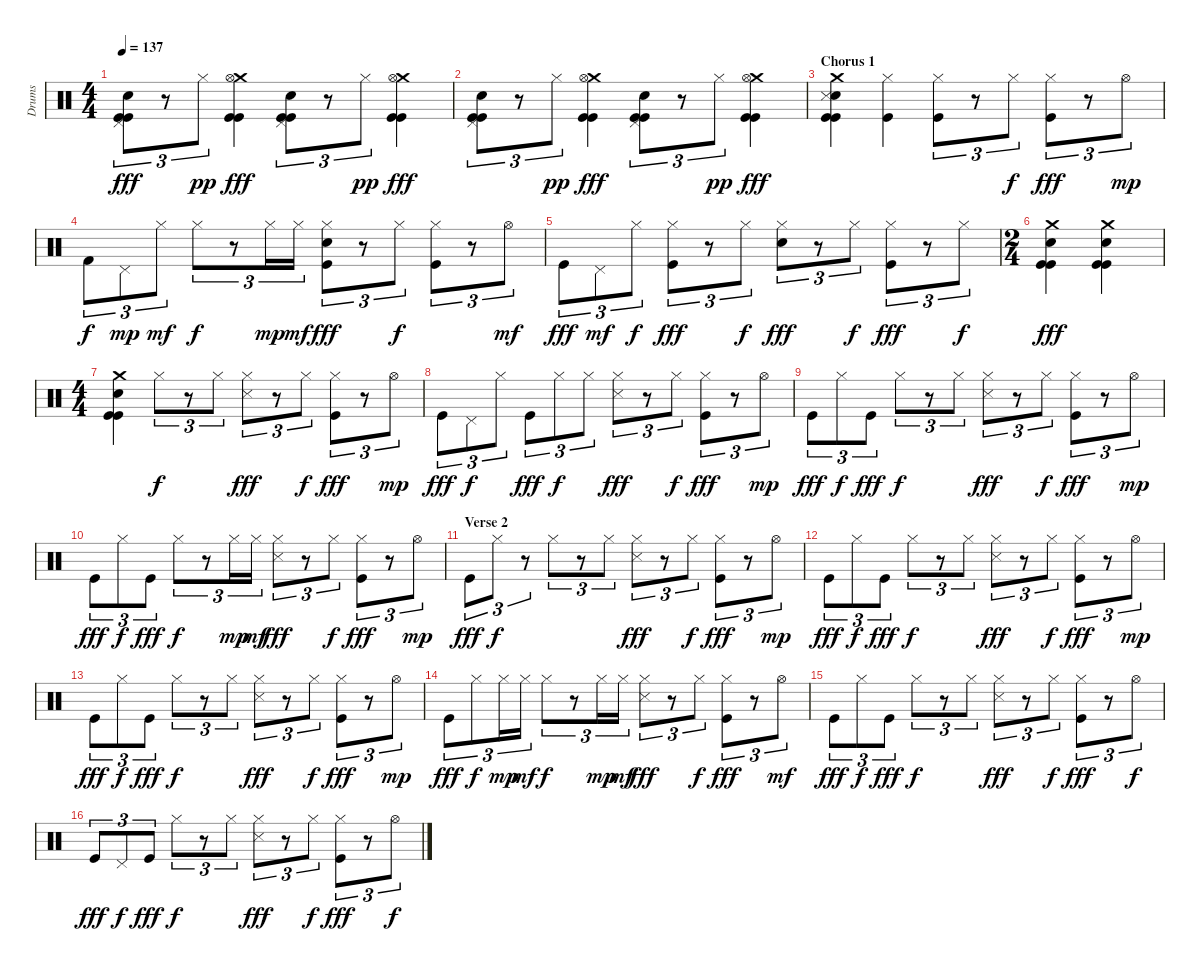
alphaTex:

\track ("Drums" "Drums") {instrument percussion}
\staff {score}
\articulation defaults
\ts (4 4)
\tempo 137
\clef neutral
\ks c
("Pedal Hi-Hat (hit)" "Electric Snare (hit)" "Kick (hit)" "Kick (hit)").8{tu (3 2) dy fff volume 16} r.8{tu (3 2)} "Hi-Hat (closed)".8{tu (3 2) dy pp} ("Crash medium (hit)" "Hi-Hat (open)" "Kick (hit)" "Kick (hit)").4{dy fff} ("Pedal Hi-Hat (hit)" "Electric Snare (hit)" "Kick (hit)" "Kick (hit)").8{tu (3 2)} r.8{tu (3 2)} "Hi-Hat (closed)".8{tu (3 2) dy pp} ("Crash medium (hit)" "Hi-Hat (open)" "Kick (hit)" "Kick (hit)").4{dy fff} |
("Pedal Hi-Hat (hit)" "Electric Snare (hit)" "Kick (hit)" "Kick (hit)").8{tu (3 2)} r.8{tu (3 2)} "Hi-Hat (closed)".8{tu (3 2) dy pp} ("Crash medium (hit)" "Hi-Hat (open)" "Kick (hit)" "Kick (hit)").4{dy fff} ("Pedal Hi-Hat (hit)" "Electric Snare (hit)" "Kick (hit)" "Kick (hit)").8{tu (3 2)} r.8{tu (3 2)} "Hi-Hat (closed)".8{tu (3 2) dy pp} ("Crash medium (hit)" "Hi-Hat (open)" "Kick (hit)" "Kick (hit)").4{dy fff} |
\section ("" "Chorus 1")
("Crash medium (hit)" "Electric Snare (hit)" "Snare (side stick) 3" "Kick (hit)" "Kick (hit)").4 ("Hi-Hat (closed)" "Kick (hit)").4{volume 10} ("Hi-Hat (closed)" "Kick (hit)").8{tu (3 2)} r.8{tu (3 2)} "Hi-Hat (closed)".8{tu (3 2) dy f} ("Hi-Hat (closed)" "Kick (hit)").8{tu (3 2) dy fff} r.8{tu (3 2)} "Hi-Hat (open)".8{tu (3 2) dy mp} |
"Kick (hit) 2".8{tu (3 2) dy f} "Pedal Hi-Hat (hit)".8{tu (3 2) dy mp} "Hi-Hat (closed)".8{tu (3 2) dy mf} "Hi-Hat (closed)".8{tu (3 2) dy f} r.8{tu (3 2)} "Hi-Hat (closed)".16{tu (3 2) dy mp} "Hi-Hat (closed)".16{tu (3 2) dy mf} ("Hi-Hat (closed)" "Electric Snare (hit)" "Kick (hit)").8{tu (3 2) dy fff} r.8{tu (3 2)} "Hi-Hat (closed)".8{tu (3 2) dy f} ("Hi-Hat (closed)" "Kick (hit)").8{tu (3 2)} r.8{tu (3 2)} "Hi-Hat (open)".8{tu (3 2) dy mf} |
"Kick (hit)".8{tu (3 2) dy fff} "Pedal Hi-Hat (hit)".8{tu (3 2) dy mf} "Hi-Hat (closed)".8{tu (3 2) dy f} ("Hi-Hat (closed)" "Kick (hit)").8{tu (3 2) dy fff} r.8{tu (3 2)} "Hi-Hat (closed)".8{tu (3 2) dy f} ("Hi-Hat (closed)" "Electric Snare (hit)").8{tu (3 2) dy fff} r.8{tu (3 2)} "Hi-Hat (closed)".8{tu (3 2) dy f} ("Hi-Hat (closed)" "Kick (hit)").8{tu (3 2) dy fff} r.8{tu (3 2)} "Hi-Hat (closed)".8{tu (3 2) dy f} |
\ts (2 4)
("Crash medium (hit)" "Electric Snare (hit)" "Kick (hit)" "Kick (hit)").4{dy fff volume 16} ("Crash medium (hit)" "Electric Snare (hit)" "Kick (hit)" "Kick (hit)").4 |
\ts (4 4)
("Crash medium (hit)" "Electric Snare (hit)" "Kick (hit)" "Kick (hit)").4{volume 10} "Hi-Hat (closed)".8{tu (3 2) dy f} r.8{tu (3 2)} "Hi-Hat (closed)".8{tu (3 2)} ("Hi-Hat (closed)" "Snare (side stick) 3").8{tu (3 2) dy fff} r.8{tu (3 2)} "Hi-Hat (closed)".8{tu (3 2) dy f} ("Hi-Hat (closed)" "Kick (hit)").8{tu (3 2) dy fff} r.8{tu (3 2)} "Hi-Hat (open)".8{tu (3 2) dy mp} |
"Kick (hit)".8{tu (3 2) dy fff} "Pedal Hi-Hat (hit)".8{tu (3 2) dy f} "Hi-Hat (closed)".8{tu (3 2)} "Kick (hit)".8{tu (3 2) dy fff} "Hi-Hat (closed)".8{tu (3 2) dy f} "Hi-Hat (closed)".8{tu (3 2)} ("Hi-Hat (closed)" "Snare (side stick) 3").8{tu (3 2) dy fff} r.8{tu (3 2)} "Hi-Hat (closed)".8{tu (3 2) dy f} ("Hi-Hat (closed)" "Kick (hit)").8{tu (3 2) dy fff} r.8{tu (3 2)} "Hi-Hat (open)".8{tu (3 2) dy mp} |
"Kick (hit)".8{tu (3 2) dy fff} "Hi-Hat (closed)".8{tu (3 2) dy f} "Kick (hit)".8{tu (3 2) dy fff} "Hi-Hat (closed)".8{tu (3 2) dy f} r.8{tu (3 2)} "Hi-Hat (closed)".8{tu (3 2)} ("Hi-Hat (closed)" "Snare (side stick) 3").8{tu (3 2) dy fff} r.8{tu (3 2)} "Hi-Hat (closed)".8{tu (3 2) dy f} ("Hi-Hat (closed)" "Kick (hit)").8{tu (3 2) dy fff} r.8{tu (3 2)} "Hi-Hat (open)".8{tu (3 2) dy mp} |
"Kick (hit)".8{tu (3 2) dy fff} "Hi-Hat (closed)".8{tu (3 2) dy f} "Kick (hit)".8{tu (3 2) dy fff} "Hi-Hat (closed)".8{tu (3 2) dy f} r.8{tu (3 2)} "Hi-Hat (closed)".16{tu (3 2) dy mp} "Hi-Hat (closed)".16{tu (3 2) dy mf} ("Hi-Hat (closed)" "Snare (side stick) 3").8{tu (3 2) dy fff} r.8{tu (3 2)} "Hi-Hat (closed)".8{tu (3 2) dy f} ("Hi-Hat (closed)" "Kick (hit)").8{tu (3 2) dy fff} r.8{tu (3 2)} "Hi-Hat (open)".8{tu (3 2) dy mp} |
\section ("" "Verse 2")
"Kick (hit)".8{tu (3 2) dy fff} "Hi-Hat (closed)".8{tu (3 2) dy f} r.8{tu (3 2)} "Hi-Hat (closed)".8{tu (3 2)} r.8{tu (3 2)} "Hi-Hat (closed)".8{tu (3 2)} ("Hi-Hat (closed)" "Snare (side stick) 3").8{tu (3 2) dy fff} r.8{tu (3 2)} "Hi-Hat (closed)".8{tu (3 2) dy f} ("Hi-Hat (closed)" "Kick (hit)").8{tu (3 2) dy fff} r.8{tu (3 2)} "Hi-Hat (open)".8{tu (3 2) dy mp} |
"Kick (hit)".8{tu (3 2) dy fff} "Hi-Hat (closed)".8{tu (3 2) dy f} "Kick (hit)".8{tu (3 2) dy fff} "Hi-Hat (closed)".8{tu (3 2) dy f} r.8{tu (3 2)} "Hi-Hat (closed)".8{tu (3 2)} ("Hi-Hat (closed)" "Snare (side stick) 3").8{tu (3 2) dy fff} r.8{tu (3 2)} "Hi-Hat (closed)".8{tu (3 2) dy f} ("Hi-Hat (closed)" "Kick (hit)").8{tu (3 2) dy fff} r.8{tu (3 2)} "Hi-Hat (open)".8{tu (3 2) dy mp} |
"Kick (hit)".8{tu (3 2) dy fff} "Hi-Hat (closed)".8{tu (3 2) dy f} "Kick (hit)".8{tu (3 2) dy fff} "Hi-Hat (closed)".8{tu (3 2) dy f} r.8{tu (3 2)} "Hi-Hat (closed)".8{tu (3 2)} ("Hi-Hat (closed)" "Snare (side stick) 3").8{tu (3 2) dy fff} r.8{tu (3 2)} "Hi-Hat (closed)".8{tu (3 2) dy f} ("Hi-Hat (closed)" "Kick (hit)").8{tu (3 2) dy fff} r.8{tu (3 2)} "Hi-Hat (open)".8{tu (3 2) dy mp} |
"Kick (hit)".8{tu (3 2) dy fff} "Hi-Hat (closed)".8{tu (3 2) dy f} "Hi-Hat (closed)".16{tu (3 2) dy mp} "Hi-Hat (closed)".16{tu (3 2) dy mf} "Hi-Hat (closed)".8{tu (3 2) dy f} r.8{tu (3 2)} "Hi-Hat (closed)".16{tu (3 2) dy mp} "Hi-Hat (closed)".16{tu (3 2) dy mf} ("Hi-Hat (closed)" "Snare (side stick) 3").8{tu (3 2) dy fff} r.8{tu (3 2)} "Hi-Hat (closed)".8{tu (3 2) dy f} ("Hi-Hat (closed)" "Kick (hit)").8{tu (3 2) dy fff} r.8{tu (3 2)} "Hi-Hat (open)".8{tu (3 2) dy mf} |
"Kick (hit)".8{tu (3 2) dy fff} "Hi-Hat (closed)".8{tu (3 2) dy f} "Kick (hit)".8{tu (3 2) dy fff} "Hi-Hat (closed)".8{tu (3 2) dy f} r.8{tu (3 2)} "Hi-Hat (closed)".8{tu (3 2)} ("Hi-Hat (closed)" "Snare (side stick) 3").8{tu (3 2) dy fff} r.8{tu (3 2)} "Hi-Hat (closed)".8{tu (3 2) dy f} ("Hi-Hat (closed)" "Kick (hit)").8{tu (3 2) dy fff} r.8{tu (3 2)} "Hi-Hat (open)".8{tu (3 2) dy f} |
"Kick (hit)".8{tu (3 2) dy fff} "Pedal Hi-Hat (hit)".8{tu (3 2) dy f} "Kick (hit)".8{tu (3 2) dy fff} "Hi-Hat (closed)".8{tu (3 2) dy f} r.8{tu (3 2)} "Hi-Hat (closed)".8{tu (3 2)} ("Hi-Hat (closed)" "Snare (side stick) 3").8{tu (3 2) dy fff} r.8{tu (3 2)} "Hi-Hat (closed)".8{tu (3 2) dy f} ("Hi-Hat (closed)" "Kick (hit)").8{tu (3 2) dy fff} r.8{tu (3 2)} "Hi-Hat (open)".8{tu (3 2) dy f}
